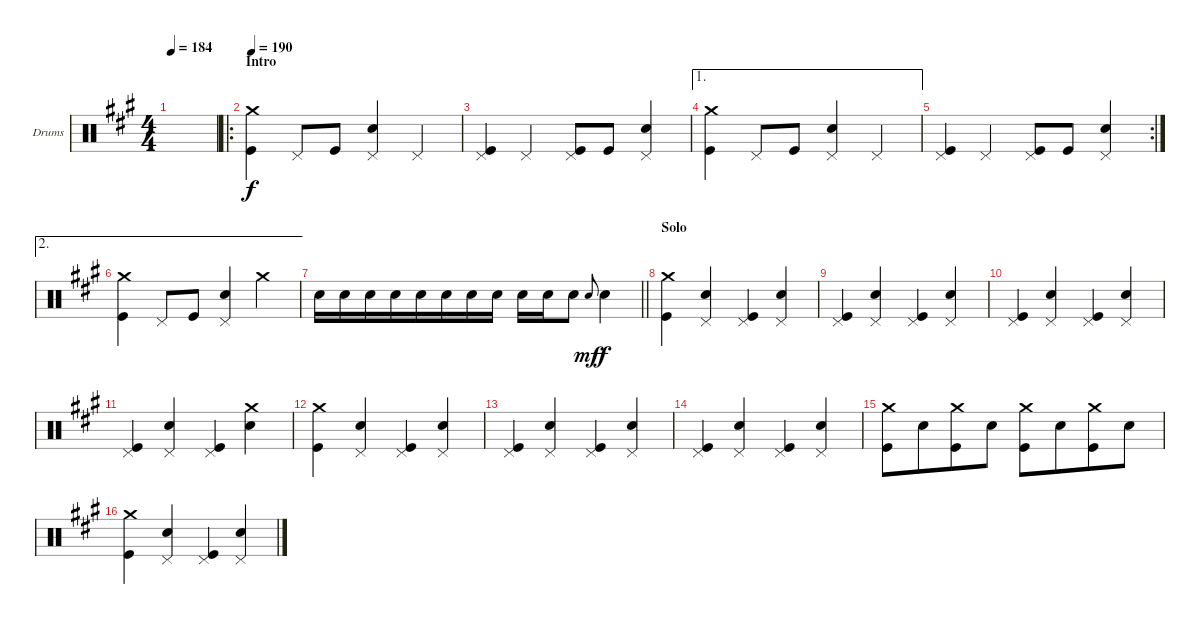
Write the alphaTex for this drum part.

\bracketExtendMode groupsimilarinstruments
\firstSystemTrackNameOrientation horizontal
\otherSystemsTrackNameOrientation horizontal
\track ("Drums" "Drums") {instrument percussion}
\staff {score}
\articulation defaults
\ts (4 4)
\beaming (8 4 4)
\tempo 184
\clef neutral
\ks a
|
\ro
\section ("" "Intro")
\tempo 190
("Crash medium (hit)" "Kick (hit)").4 "Pedal Hi-Hat (hit)".8 "Kick (hit)".8 ("Pedal Hi-Hat (hit)" "Snare (hit) 2").4 "Pedal Hi-Hat (hit)".4 |
("Pedal Hi-Hat (hit)" "Kick (hit)").4 "Pedal Hi-Hat (hit)".4 ("Pedal Hi-Hat (hit)" "Kick (hit)").8 "Kick (hit)".8 ("Pedal Hi-Hat (hit)" "Snare (hit) 2").4 |
\ae 1
("Crash medium (hit)" "Kick (hit)").4 "Pedal Hi-Hat (hit)".8 "Kick (hit)".8 ("Pedal Hi-Hat (hit)" "Snare (hit) 2").4 "Pedal Hi-Hat (hit)".4 |
\rc 2
("Pedal Hi-Hat (hit)" "Kick (hit)").4 "Pedal Hi-Hat (hit)".4 ("Pedal Hi-Hat (hit)" "Kick (hit)").8 "Kick (hit)".8 ("Pedal Hi-Hat (hit)" "Snare (hit) 2").4 |
\ae 2
("Crash medium (hit)" "Kick (hit)").4 "Pedal Hi-Hat (hit)".8 "Kick (hit)".8 ("Pedal Hi-Hat (hit)" "Snare (hit) 2").4 "Crash medium (hit)".4 |
\barLineRight lightlight "Snare (hit) 2".16 "Snare (hit) 2".16 "Snare (hit) 2".16 "Snare (hit) 2".16 "Snare (hit) 2".16 "Snare (hit) 2".16 "Snare (hit) 2".16 "Snare (hit) 2".16 "Snare (hit) 2".16 "Snare (hit) 2".16 "Snare (hit) 2".8 "Snare (hit) 2".8{gr onbeat dy mf} "Snare (hit) 2".4{dy f}
|
\section ("" "Solo")
("Crash medium (hit)" "Kick (hit)").4 ("Pedal Hi-Hat (hit)" "Snare (hit) 2").4 ("Pedal Hi-Hat (hit)" "Kick (hit)").4 ("Pedal Hi-Hat (hit)" "Snare (hit) 2").4 |
("Pedal Hi-Hat (hit)" "Kick (hit)").4 ("Pedal Hi-Hat (hit)" "Snare (hit) 2").4 ("Pedal Hi-Hat (hit)" "Kick (hit)").4 ("Pedal Hi-Hat (hit)" "Snare (hit) 2").4 |
("Pedal Hi-Hat (hit)" "Kick (hit)").4 ("Pedal Hi-Hat (hit)" "Snare (hit) 2").4 ("Pedal Hi-Hat (hit)" "Kick (hit)").4 ("Pedal Hi-Hat (hit)" "Snare (hit) 2").4 |
("Pedal Hi-Hat (hit)" "Kick (hit)").4 ("Pedal Hi-Hat (hit)" "Snare (hit) 2").4 ("Pedal Hi-Hat (hit)" "Kick (hit)").4 ("Crash medium (hit)" "Snare (hit) 2").4 |
("Crash medium (hit)" "Kick (hit)").4 ("Pedal Hi-Hat (hit)" "Snare (hit) 2").4 ("Pedal Hi-Hat (hit)" "Kick (hit)").4 ("Pedal Hi-Hat (hit)" "Snare (hit) 2").4 |
("Pedal Hi-Hat (hit)" "Kick (hit)").4 ("Pedal Hi-Hat (hit)" "Snare (hit) 2").4 ("Pedal Hi-Hat (hit)" "Kick (hit)").4 ("Pedal Hi-Hat (hit)" "Snare (hit) 2").4 |
("Pedal Hi-Hat (hit)" "Kick (hit)").4 ("Pedal Hi-Hat (hit)" "Snare (hit) 2").4 ("Pedal Hi-Hat (hit)" "Kick (hit)").4 ("Pedal Hi-Hat (hit)" "Snare (hit) 2").4 |
("Crash medium (hit)" "Kick (hit)").8 "Snare (hit) 2".8 ("Crash medium (hit)" "Kick (hit)").8 "Snare (hit) 2".8 ("Crash medium (hit)" "Kick (hit)").8 "Snare (hit) 2".8 ("Crash medium (hit)" "Kick (hit)").8 "Snare (hit) 2".8 |
("Crash medium (hit)" "Kick (hit)").4 ("Pedal Hi-Hat (hit)" "Snare (hit) 2").4 ("Pedal Hi-Hat (hit)" "Kick (hit)").4 ("Pedal Hi-Hat (hit)" "Snare (hit) 2").4
